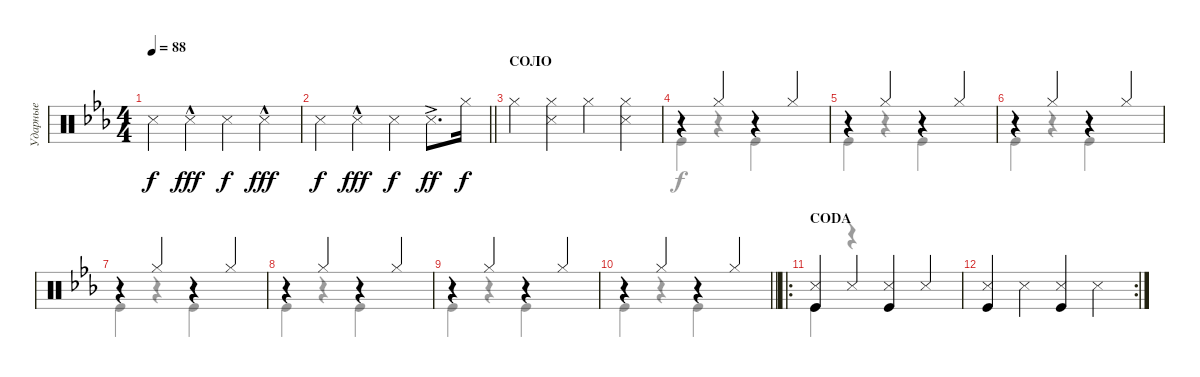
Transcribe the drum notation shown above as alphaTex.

\track ("Ударные" "Ударные") {instrument percussion}
\staff {score}
\articulation defaults
\voice
\ts (4 4)
\tempo 88
\clef neutral
\ks cminor "Snare (side stick) 3".4{dy f} "Snare (side stick) 3"{hac}.4{dy fff} "Snare (side stick) 3".4{dy f} "Snare (side stick) 3"{hac}.4{dy fff}
|
\barLineRight lightlight "Snare (side stick) 3".4{dy f} "Snare (side stick) 3"{hac}.4{dy fff} "Snare (side stick) 3".4{dy f} "Snare (side stick) 3"{ac}.8{d dy ff} "Hi-Hat (closed)".16{dy f}
|
\section ("" "СОЛО")
"Hi-Hat (closed)".4 ("Hi-Hat (closed)" "Snare (side stick) 3").4 "Hi-Hat (closed)".4 ("Hi-Hat (closed)" "Snare (side stick) 3").4 |
r.4 "Hi-Hat (closed)".4 r.4 "Hi-Hat (closed)".4 |
r.4 "Hi-Hat (closed)".4 r.4 "Hi-Hat (closed)".4 |
r.4 "Hi-Hat (closed)".4 r.4 "Hi-Hat (closed)".4 |
r.4 "Hi-Hat (closed)".4 r.4 "Hi-Hat (closed)".4 |
r.4 "Hi-Hat (closed)".4 r.4 "Hi-Hat (closed)".4 |
r.4 "Hi-Hat (closed)".4 r.4 "Hi-Hat (closed)".4 |
\barLineRight lightlight
r.4 "Hi-Hat (closed)".4 r.4 "Hi-Hat (closed)".4 |
\ro
\section ("" "CODA")
("Snare (side stick) 3" "Kick (hit)").4 "Snare (side stick) 3".4 ("Snare (side stick) 3" "Kick (hit)").4 "Snare (side stick) 3".4 |
\rc 2
("Snare (side stick) 3" "Kick (hit)").4 "Snare (side stick) 3".4 ("Snare (side stick) 3" "Kick (hit)").4 "Snare (side stick) 3".4
\voice
\clef neutral
\ottava regular
\simile none
\ks cminor
|
\barLineRight lightlight
|
|
"Kick (hit)".4 r.4 "Kick (hit)".4 |
"Kick (hit)".4 r.4 "Kick (hit)".4 |
"Kick (hit)".4 r.4 "Kick (hit)".4 |
"Kick (hit)".4 r.4 "Kick (hit)".4 |
"Kick (hit)".4 r.4 "Kick (hit)".4 |
"Kick (hit)".4 r.4 "Kick (hit)".4 |
\barLineRight lightlight "Kick (hit)".4
r.4 "Kick (hit)".4 |
"Kick (hit)".4 r.4 |
